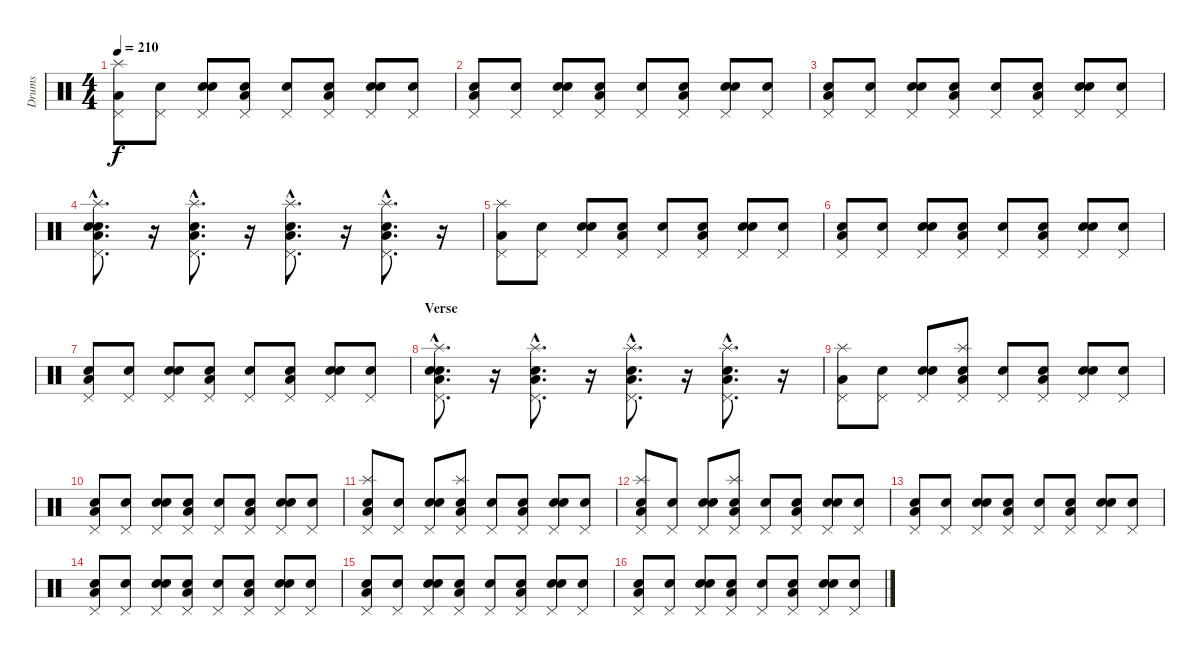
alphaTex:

\track ("Drums" "Drums") {instrument percussion}
\staff {score}
\articulation defaults
\ts (4 4)
\tempo 210
\clef neutral
\ks c
("Low Floor Tom (hit)" "Pedal Hi-Hat (hit)" "Splash (hit)").8{dy f} ("Snare (hit)" "Pedal Hi-Hat (hit)").8 ("Snare (hit)" "Electric Snare (hit)" "Pedal Hi-Hat (hit)").8 ("Snare (hit)" "Low Floor Tom (hit)" "Pedal Hi-Hat (hit)").8 ("Snare (hit)" "Pedal Hi-Hat (hit)").8 ("Snare (hit)" "Low Floor Tom (hit)" "Pedal Hi-Hat (hit)").8 ("Snare (hit)" "Electric Snare (hit)" "Pedal Hi-Hat (hit)").8 ("Snare (hit)" "Pedal Hi-Hat (hit)").8 |
("Snare (hit)" "Low Floor Tom (hit)" "Pedal Hi-Hat (hit)").8 ("Snare (hit)" "Pedal Hi-Hat (hit)").8 ("Snare (hit)" "Electric Snare (hit)" "Pedal Hi-Hat (hit)").8 ("Snare (hit)" "Low Floor Tom (hit)" "Pedal Hi-Hat (hit)").8 ("Snare (hit)" "Pedal Hi-Hat (hit)").8 ("Snare (hit)" "Low Floor Tom (hit)" "Pedal Hi-Hat (hit)").8 ("Snare (hit)" "Electric Snare (hit)" "Pedal Hi-Hat (hit)").8 ("Snare (hit)" "Pedal Hi-Hat (hit)").8 |
("Snare (hit)" "Low Floor Tom (hit)" "Pedal Hi-Hat (hit)").8 ("Snare (hit)" "Pedal Hi-Hat (hit)").8 ("Snare (hit)" "Electric Snare (hit)" "Pedal Hi-Hat (hit)").8 ("Snare (hit)" "Low Floor Tom (hit)" "Pedal Hi-Hat (hit)").8 ("Snare (hit)" "Pedal Hi-Hat (hit)").8 ("Snare (hit)" "Low Floor Tom (hit)" "Pedal Hi-Hat (hit)").8 ("Snare (hit)" "Electric Snare (hit)" "Pedal Hi-Hat (hit)").8 ("Snare (hit)" "Pedal Hi-Hat (hit)").8 |
("Snare (hit)"{hac} "Electric Snare (hit)"{hac} "Low Floor Tom (hit)"{hac} "Pedal Hi-Hat (hit)"{hac} "Splash (hit)"{hac}).8{d} r.16 ("Electric Snare (hit)"{hac} "Low Floor Tom (hit)"{hac} "Pedal Hi-Hat (hit)"{hac} "Splash (hit)"{hac}).8{d} r.16 ("Electric Snare (hit)"{hac} "Low Floor Tom (hit)"{hac} "Pedal Hi-Hat (hit)"{hac} "Splash (hit)"{hac}).8{d} r.16 ("Electric Snare (hit)"{hac} "Low Floor Tom (hit)"{hac} "Pedal Hi-Hat (hit)"{hac} "Splash (hit)"{hac}).8{d} r.16 |
("Low Floor Tom (hit)" "Pedal Hi-Hat (hit)" "Splash (hit)").8 ("Snare (hit)" "Pedal Hi-Hat (hit)").8 ("Snare (hit)" "Electric Snare (hit)" "Pedal Hi-Hat (hit)").8 ("Snare (hit)" "Low Floor Tom (hit)" "Pedal Hi-Hat (hit)").8 ("Snare (hit)" "Pedal Hi-Hat (hit)").8 ("Snare (hit)" "Low Floor Tom (hit)" "Pedal Hi-Hat (hit)").8 ("Snare (hit)" "Electric Snare (hit)" "Pedal Hi-Hat (hit)").8 ("Snare (hit)" "Pedal Hi-Hat (hit)").8 |
("Snare (hit)" "Low Floor Tom (hit)" "Pedal Hi-Hat (hit)").8 ("Snare (hit)" "Pedal Hi-Hat (hit)").8 ("Snare (hit)" "Electric Snare (hit)" "Pedal Hi-Hat (hit)").8 ("Snare (hit)" "Low Floor Tom (hit)" "Pedal Hi-Hat (hit)").8 ("Snare (hit)" "Pedal Hi-Hat (hit)").8 ("Snare (hit)" "Low Floor Tom (hit)" "Pedal Hi-Hat (hit)").8 ("Snare (hit)" "Electric Snare (hit)" "Pedal Hi-Hat (hit)").8 ("Snare (hit)" "Pedal Hi-Hat (hit)").8 |
("Snare (hit)" "Low Floor Tom (hit)" "Pedal Hi-Hat (hit)").8 ("Snare (hit)" "Pedal Hi-Hat (hit)").8 ("Snare (hit)" "Electric Snare (hit)" "Pedal Hi-Hat (hit)").8 ("Snare (hit)" "Low Floor Tom (hit)" "Pedal Hi-Hat (hit)").8 ("Snare (hit)" "Pedal Hi-Hat (hit)").8 ("Snare (hit)" "Low Floor Tom (hit)" "Pedal Hi-Hat (hit)").8 ("Snare (hit)" "Electric Snare (hit)" "Pedal Hi-Hat (hit)").8 ("Snare (hit)" "Pedal Hi-Hat (hit)").8 |
\section ("" "Verse")
("Snare (hit)"{hac} "Electric Snare (hit)"{hac} "Low Floor Tom (hit)"{hac} "Pedal Hi-Hat (hit)"{hac} "Splash (hit)"{hac}).8{d} r.16 ("Electric Snare (hit)"{hac} "Low Floor Tom (hit)"{hac} "Pedal Hi-Hat (hit)"{hac} "Splash (hit)"{hac}).8{d} r.16 ("Electric Snare (hit)"{hac} "Low Floor Tom (hit)"{hac} "Pedal Hi-Hat (hit)"{hac} "Splash (hit)"{hac}).8{d} r.16 ("Electric Snare (hit)"{hac} "Low Floor Tom (hit)"{hac} "Pedal Hi-Hat (hit)"{hac} "Splash (hit)"{hac}).8{d} r.16 |
("Low Floor Tom (hit)" "Pedal Hi-Hat (hit)" "Splash (hit)").8 ("Snare (hit)" "Pedal Hi-Hat (hit)").8 ("Snare (hit)" "Electric Snare (hit)" "Pedal Hi-Hat (hit)").8 ("Snare (hit)" "Low Floor Tom (hit)" "Pedal Hi-Hat (hit)" "Splash (hit)").8 ("Snare (hit)" "Pedal Hi-Hat (hit)").8 ("Snare (hit)" "Low Floor Tom (hit)" "Pedal Hi-Hat (hit)").8 ("Snare (hit)" "Electric Snare (hit)" "Pedal Hi-Hat (hit)").8 ("Snare (hit)" "Pedal Hi-Hat (hit)").8 |
("Snare (hit)" "Low Floor Tom (hit)" "Pedal Hi-Hat (hit)").8 ("Snare (hit)" "Pedal Hi-Hat (hit)").8 ("Snare (hit)" "Electric Snare (hit)" "Pedal Hi-Hat (hit)").8 ("Snare (hit)" "Low Floor Tom (hit)" "Pedal Hi-Hat (hit)").8 ("Snare (hit)" "Pedal Hi-Hat (hit)").8 ("Snare (hit)" "Low Floor Tom (hit)" "Pedal Hi-Hat (hit)").8 ("Snare (hit)" "Electric Snare (hit)" "Pedal Hi-Hat (hit)").8 ("Snare (hit)" "Pedal Hi-Hat (hit)").8 |
("Snare (hit)" "Low Floor Tom (hit)" "Pedal Hi-Hat (hit)" "Splash (hit)").8 ("Snare (hit)" "Pedal Hi-Hat (hit)").8 ("Snare (hit)" "Electric Snare (hit)" "Pedal Hi-Hat (hit)").8 ("Snare (hit)" "Low Floor Tom (hit)" "Pedal Hi-Hat (hit)" "Splash (hit)").8 ("Snare (hit)" "Pedal Hi-Hat (hit)").8 ("Snare (hit)" "Low Floor Tom (hit)" "Pedal Hi-Hat (hit)").8 ("Snare (hit)" "Electric Snare (hit)" "Pedal Hi-Hat (hit)").8 ("Snare (hit)" "Pedal Hi-Hat (hit)").8 |
("Snare (hit)" "Low Floor Tom (hit)" "Pedal Hi-Hat (hit)" "Splash (hit)").8 ("Snare (hit)" "Pedal Hi-Hat (hit)").8 ("Snare (hit)" "Electric Snare (hit)" "Pedal Hi-Hat (hit)").8 ("Snare (hit)" "Low Floor Tom (hit)" "Pedal Hi-Hat (hit)" "Splash (hit)").8 ("Snare (hit)" "Pedal Hi-Hat (hit)").8 ("Snare (hit)" "Low Floor Tom (hit)" "Pedal Hi-Hat (hit)").8 ("Snare (hit)" "Electric Snare (hit)" "Pedal Hi-Hat (hit)").8 ("Snare (hit)" "Pedal Hi-Hat (hit)").8 |
("Snare (hit)" "Low Floor Tom (hit)" "Pedal Hi-Hat (hit)").8 ("Snare (hit)" "Pedal Hi-Hat (hit)").8 ("Snare (hit)" "Electric Snare (hit)" "Pedal Hi-Hat (hit)").8 ("Snare (hit)" "Low Floor Tom (hit)" "Pedal Hi-Hat (hit)").8 ("Snare (hit)" "Pedal Hi-Hat (hit)").8 ("Snare (hit)" "Low Floor Tom (hit)" "Pedal Hi-Hat (hit)").8 ("Snare (hit)" "Electric Snare (hit)" "Pedal Hi-Hat (hit)").8 ("Snare (hit)" "Pedal Hi-Hat (hit)").8 |
("Snare (hit)" "Low Floor Tom (hit)" "Pedal Hi-Hat (hit)").8 ("Snare (hit)" "Pedal Hi-Hat (hit)").8 ("Snare (hit)" "Electric Snare (hit)" "Pedal Hi-Hat (hit)").8 ("Snare (hit)" "Low Floor Tom (hit)" "Pedal Hi-Hat (hit)").8 ("Snare (hit)" "Pedal Hi-Hat (hit)").8 ("Snare (hit)" "Low Floor Tom (hit)" "Pedal Hi-Hat (hit)").8 ("Snare (hit)" "Electric Snare (hit)" "Pedal Hi-Hat (hit)").8 ("Snare (hit)" "Pedal Hi-Hat (hit)").8 |
("Snare (hit)" "Low Floor Tom (hit)" "Pedal Hi-Hat (hit)").8 ("Snare (hit)" "Pedal Hi-Hat (hit)").8 ("Snare (hit)" "Electric Snare (hit)" "Pedal Hi-Hat (hit)").8 ("Snare (hit)" "Low Floor Tom (hit)" "Pedal Hi-Hat (hit)").8 ("Snare (hit)" "Pedal Hi-Hat (hit)").8 ("Snare (hit)" "Low Floor Tom (hit)" "Pedal Hi-Hat (hit)").8 ("Snare (hit)" "Electric Snare (hit)" "Pedal Hi-Hat (hit)").8 ("Snare (hit)" "Pedal Hi-Hat (hit)").8 |
("Snare (hit)" "Low Floor Tom (hit)" "Pedal Hi-Hat (hit)").8 ("Snare (hit)" "Pedal Hi-Hat (hit)").8 ("Snare (hit)" "Electric Snare (hit)" "Pedal Hi-Hat (hit)").8 ("Snare (hit)" "Low Floor Tom (hit)" "Pedal Hi-Hat (hit)").8 ("Snare (hit)" "Pedal Hi-Hat (hit)").8 ("Snare (hit)" "Low Floor Tom (hit)" "Pedal Hi-Hat (hit)").8 ("Snare (hit)" "Electric Snare (hit)" "Pedal Hi-Hat (hit)").8 ("Snare (hit)" "Pedal Hi-Hat (hit)").8
